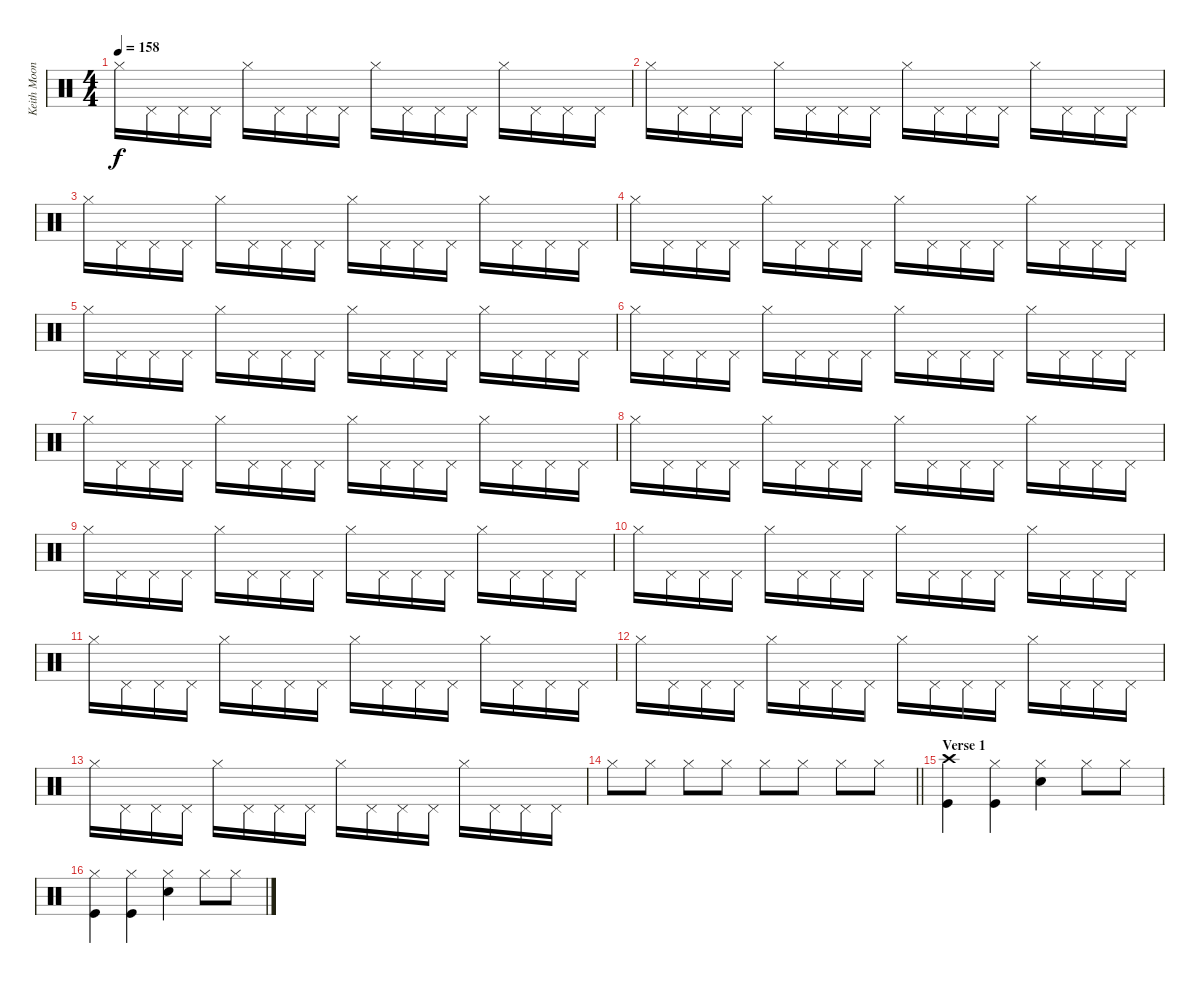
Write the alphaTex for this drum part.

\track ("Keith Moon" "Keith Moon") {instrument percussion}
\staff {score}
\articulation defaults
\ts (4 4)
\tempo 158
\clef neutral
\ks c "Hi-Hat (closed)".16{dy f} "Pedal Hi-Hat (hit)".16 "Pedal Hi-Hat (hit)".16 "Pedal Hi-Hat (hit)".16 "Hi-Hat (closed)".16 "Pedal Hi-Hat (hit)".16 "Pedal Hi-Hat (hit)".16 "Pedal Hi-Hat (hit)".16 "Hi-Hat (closed)".16 "Pedal Hi-Hat (hit)".16 "Pedal Hi-Hat (hit)".16 "Pedal Hi-Hat (hit)".16 "Hi-Hat (closed)".16 "Pedal Hi-Hat (hit)".16 "Pedal Hi-Hat (hit)".16 "Pedal Hi-Hat (hit)".16
|
"Hi-Hat (closed)".16 "Pedal Hi-Hat (hit)".16 "Pedal Hi-Hat (hit)".16 "Pedal Hi-Hat (hit)".16 "Hi-Hat (closed)".16 "Pedal Hi-Hat (hit)".16 "Pedal Hi-Hat (hit)".16 "Pedal Hi-Hat (hit)".16 "Hi-Hat (closed)".16 "Pedal Hi-Hat (hit)".16 "Pedal Hi-Hat (hit)".16 "Pedal Hi-Hat (hit)".16 "Hi-Hat (closed)".16 "Pedal Hi-Hat (hit)".16 "Pedal Hi-Hat (hit)".16 "Pedal Hi-Hat (hit)".16 |
"Hi-Hat (closed)".16 "Pedal Hi-Hat (hit)".16 "Pedal Hi-Hat (hit)".16 "Pedal Hi-Hat (hit)".16 "Hi-Hat (closed)".16 "Pedal Hi-Hat (hit)".16 "Pedal Hi-Hat (hit)".16 "Pedal Hi-Hat (hit)".16 "Hi-Hat (closed)".16 "Pedal Hi-Hat (hit)".16 "Pedal Hi-Hat (hit)".16 "Pedal Hi-Hat (hit)".16 "Hi-Hat (closed)".16 "Pedal Hi-Hat (hit)".16 "Pedal Hi-Hat (hit)".16 "Pedal Hi-Hat (hit)".16 |
"Hi-Hat (closed)".16 "Pedal Hi-Hat (hit)".16 "Pedal Hi-Hat (hit)".16 "Pedal Hi-Hat (hit)".16 "Hi-Hat (closed)".16 "Pedal Hi-Hat (hit)".16 "Pedal Hi-Hat (hit)".16 "Pedal Hi-Hat (hit)".16 "Hi-Hat (closed)".16 "Pedal Hi-Hat (hit)".16 "Pedal Hi-Hat (hit)".16 "Pedal Hi-Hat (hit)".16 "Hi-Hat (closed)".16 "Pedal Hi-Hat (hit)".16 "Pedal Hi-Hat (hit)".16 "Pedal Hi-Hat (hit)".16 |
"Hi-Hat (closed)".16 "Pedal Hi-Hat (hit)".16 "Pedal Hi-Hat (hit)".16 "Pedal Hi-Hat (hit)".16 "Hi-Hat (closed)".16 "Pedal Hi-Hat (hit)".16 "Pedal Hi-Hat (hit)".16 "Pedal Hi-Hat (hit)".16 "Hi-Hat (closed)".16 "Pedal Hi-Hat (hit)".16 "Pedal Hi-Hat (hit)".16 "Pedal Hi-Hat (hit)".16 "Hi-Hat (closed)".16 "Pedal Hi-Hat (hit)".16 "Pedal Hi-Hat (hit)".16 "Pedal Hi-Hat (hit)".16 |
"Hi-Hat (closed)".16 "Pedal Hi-Hat (hit)".16 "Pedal Hi-Hat (hit)".16 "Pedal Hi-Hat (hit)".16 "Hi-Hat (closed)".16 "Pedal Hi-Hat (hit)".16 "Pedal Hi-Hat (hit)".16 "Pedal Hi-Hat (hit)".16 "Hi-Hat (closed)".16 "Pedal Hi-Hat (hit)".16 "Pedal Hi-Hat (hit)".16 "Pedal Hi-Hat (hit)".16 "Hi-Hat (closed)".16 "Pedal Hi-Hat (hit)".16 "Pedal Hi-Hat (hit)".16 "Pedal Hi-Hat (hit)".16 |
"Hi-Hat (closed)".16 "Pedal Hi-Hat (hit)".16 "Pedal Hi-Hat (hit)".16 "Pedal Hi-Hat (hit)".16 "Hi-Hat (closed)".16 "Pedal Hi-Hat (hit)".16 "Pedal Hi-Hat (hit)".16 "Pedal Hi-Hat (hit)".16 "Hi-Hat (closed)".16 "Pedal Hi-Hat (hit)".16 "Pedal Hi-Hat (hit)".16 "Pedal Hi-Hat (hit)".16 "Hi-Hat (closed)".16 "Pedal Hi-Hat (hit)".16 "Pedal Hi-Hat (hit)".16 "Pedal Hi-Hat (hit)".16 |
"Hi-Hat (closed)".16 "Pedal Hi-Hat (hit)".16 "Pedal Hi-Hat (hit)".16 "Pedal Hi-Hat (hit)".16 "Hi-Hat (closed)".16 "Pedal Hi-Hat (hit)".16 "Pedal Hi-Hat (hit)".16 "Pedal Hi-Hat (hit)".16 "Hi-Hat (closed)".16 "Pedal Hi-Hat (hit)".16 "Pedal Hi-Hat (hit)".16 "Pedal Hi-Hat (hit)".16 "Hi-Hat (closed)".16 "Pedal Hi-Hat (hit)".16 "Pedal Hi-Hat (hit)".16 "Pedal Hi-Hat (hit)".16 |
"Hi-Hat (closed)".16 "Pedal Hi-Hat (hit)".16 "Pedal Hi-Hat (hit)".16 "Pedal Hi-Hat (hit)".16 "Hi-Hat (closed)".16 "Pedal Hi-Hat (hit)".16 "Pedal Hi-Hat (hit)".16 "Pedal Hi-Hat (hit)".16 "Hi-Hat (closed)".16 "Pedal Hi-Hat (hit)".16 "Pedal Hi-Hat (hit)".16 "Pedal Hi-Hat (hit)".16 "Hi-Hat (closed)".16 "Pedal Hi-Hat (hit)".16 "Pedal Hi-Hat (hit)".16 "Pedal Hi-Hat (hit)".16 |
"Hi-Hat (closed)".16 "Pedal Hi-Hat (hit)".16 "Pedal Hi-Hat (hit)".16 "Pedal Hi-Hat (hit)".16 "Hi-Hat (closed)".16 "Pedal Hi-Hat (hit)".16 "Pedal Hi-Hat (hit)".16 "Pedal Hi-Hat (hit)".16 "Hi-Hat (closed)".16 "Pedal Hi-Hat (hit)".16 "Pedal Hi-Hat (hit)".16 "Pedal Hi-Hat (hit)".16 "Hi-Hat (closed)".16 "Pedal Hi-Hat (hit)".16 "Pedal Hi-Hat (hit)".16 "Pedal Hi-Hat (hit)".16 |
"Hi-Hat (closed)".16 "Pedal Hi-Hat (hit)".16 "Pedal Hi-Hat (hit)".16 "Pedal Hi-Hat (hit)".16 "Hi-Hat (closed)".16 "Pedal Hi-Hat (hit)".16 "Pedal Hi-Hat (hit)".16 "Pedal Hi-Hat (hit)".16 "Hi-Hat (closed)".16 "Pedal Hi-Hat (hit)".16 "Pedal Hi-Hat (hit)".16 "Pedal Hi-Hat (hit)".16 "Hi-Hat (closed)".16 "Pedal Hi-Hat (hit)".16 "Pedal Hi-Hat (hit)".16 "Pedal Hi-Hat (hit)".16 |
"Hi-Hat (closed)".16 "Pedal Hi-Hat (hit)".16 "Pedal Hi-Hat (hit)".16 "Pedal Hi-Hat (hit)".16 "Hi-Hat (closed)".16 "Pedal Hi-Hat (hit)".16 "Pedal Hi-Hat (hit)".16 "Pedal Hi-Hat (hit)".16 "Hi-Hat (closed)".16 "Pedal Hi-Hat (hit)".16 "Pedal Hi-Hat (hit)".16 "Pedal Hi-Hat (hit)".16 "Hi-Hat (closed)".16 "Pedal Hi-Hat (hit)".16 "Pedal Hi-Hat (hit)".16 "Pedal Hi-Hat (hit)".16 |
"Hi-Hat (closed)".16 "Pedal Hi-Hat (hit)".16 "Pedal Hi-Hat (hit)".16 "Pedal Hi-Hat (hit)".16 "Hi-Hat (closed)".16 "Pedal Hi-Hat (hit)".16 "Pedal Hi-Hat (hit)".16 "Pedal Hi-Hat (hit)".16 "Hi-Hat (closed)".16 "Pedal Hi-Hat (hit)".16 "Pedal Hi-Hat (hit)".16 "Pedal Hi-Hat (hit)".16 "Hi-Hat (closed)".16 "Pedal Hi-Hat (hit)".16 "Pedal Hi-Hat (hit)".16 "Pedal Hi-Hat (hit)".16 |
\barLineRight lightlight "Hi-Hat (closed)".8 "Hi-Hat (closed)".8 "Hi-Hat (closed)".8 "Hi-Hat (closed)".8 "Hi-Hat (closed)".8 "Hi-Hat (closed)".8 "Hi-Hat (closed)".8 "Hi-Hat (closed)".8
|
\section ("" "Verse 1")
("Crash high (hit)" "Kick (hit)").4 ("Hi-Hat (closed)" "Kick (hit)").4 ("Hi-Hat (closed)" "Snare (hit) 2").4 "Hi-Hat (closed)".8 "Hi-Hat (closed)".8 |
("Hi-Hat (closed)" "Kick (hit)").4 ("Hi-Hat (closed)" "Kick (hit)").4 ("Hi-Hat (closed)" "Snare (hit) 2").4 "Hi-Hat (closed)".8 "Hi-Hat (closed)".8
